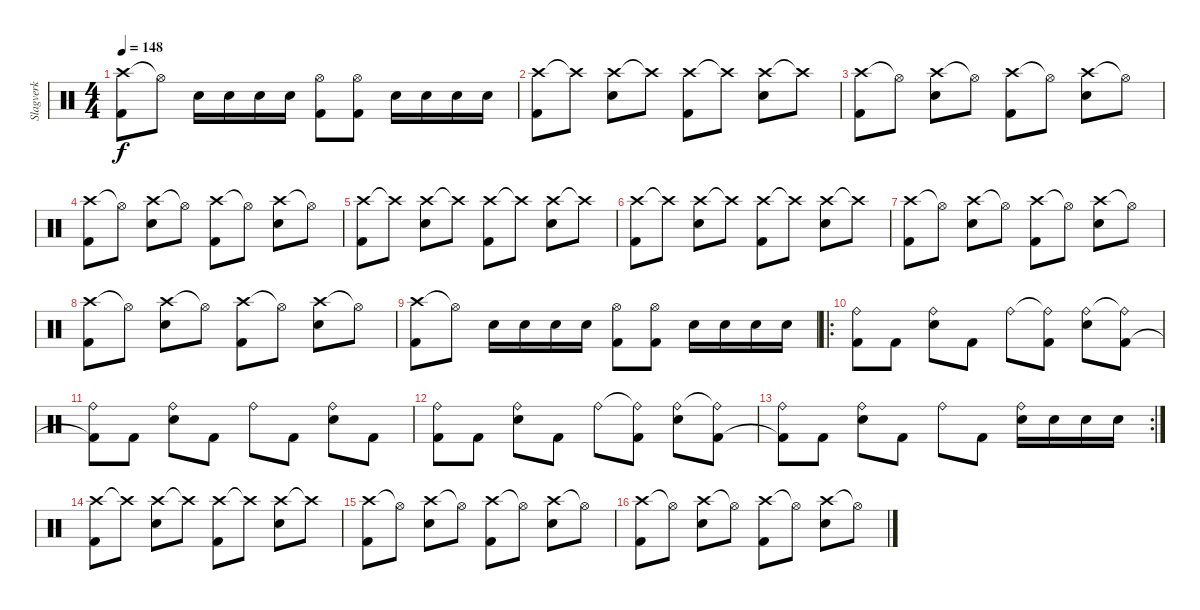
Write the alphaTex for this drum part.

\track ("Slagverk" "Slagverk") {instrument percussion}
\staff {score}
\articulation defaults
\ts (4 4)
\tempo 148
\clef neutral
\ks c
("Crash high (hit)" "Kick (hit) 2").8{dy f} "Hi-Hat (open)"{t}.8 "Electric Snare (hit)".16 "Electric Snare (hit)".16 "Electric Snare (hit)".16 "Electric Snare (hit)".16 ("Hi-Hat (open)" "Kick (hit) 2").8 ("Hi-Hat (open)" "Kick (hit) 2").8 "Electric Snare (hit)".16 "Electric Snare (hit)".16 "Electric Snare (hit)".16 "Electric Snare (hit)".16 |
("Crash high (hit)" "Kick (hit) 2").8 "Crash high (hit)"{t}.8 ("Crash high (hit)" "Electric Snare (hit)").8 "Crash high (hit)"{t}.8 ("Crash high (hit)" "Kick (hit) 2").8 "Crash high (hit)"{t}.8 ("Crash high (hit)" "Electric Snare (hit)").8 "Crash high (hit)"{t}.8 |
("Crash high (hit)" "Kick (hit) 2").8 "Hi-Hat (open)"{t}.8 ("Crash high (hit)" "Electric Snare (hit)").8 "Hi-Hat (open)"{t}.8 ("Crash high (hit)" "Kick (hit) 2").8 "Hi-Hat (open)"{t}.8 ("Crash high (hit)" "Electric Snare (hit)").8 "Hi-Hat (open)"{t}.8 |
("Crash high (hit)" "Kick (hit) 2").8 "Hi-Hat (open)"{t}.8 ("Crash high (hit)" "Electric Snare (hit)").8 "Hi-Hat (open)"{t}.8 ("Crash high (hit)" "Kick (hit) 2").8 "Hi-Hat (open)"{t}.8 ("Crash high (hit)" "Electric Snare (hit)").8 "Hi-Hat (open)"{t}.8 |
("Crash high (hit)" "Kick (hit) 2").8 "Crash high (hit)"{t}.8 ("Crash high (hit)" "Electric Snare (hit)").8 "Crash high (hit)"{t}.8 ("Crash high (hit)" "Kick (hit) 2").8 "Crash high (hit)"{t}.8 ("Crash high (hit)" "Electric Snare (hit)").8 "Crash high (hit)"{t}.8 |
("Crash high (hit)" "Kick (hit) 2").8 "Crash high (hit)"{t}.8 ("Crash high (hit)" "Electric Snare (hit)").8 "Crash high (hit)"{t}.8 ("Crash high (hit)" "Kick (hit) 2").8 "Crash high (hit)"{t}.8 ("Crash high (hit)" "Electric Snare (hit)").8 "Crash high (hit)"{t}.8 |
("Crash high (hit)" "Kick (hit) 2").8 "Hi-Hat (open)"{t}.8 ("Crash high (hit)" "Electric Snare (hit)").8 "Hi-Hat (open)"{t}.8 ("Crash high (hit)" "Kick (hit) 2").8 "Hi-Hat (open)"{t}.8 ("Crash high (hit)" "Electric Snare (hit)").8 "Hi-Hat (open)"{t}.8 |
("Crash high (hit)" "Kick (hit) 2").8 "Hi-Hat (open)"{t}.8 ("Crash high (hit)" "Electric Snare (hit)").8 "Hi-Hat (open)"{t}.8 ("Crash high (hit)" "Kick (hit) 2").8 "Hi-Hat (open)"{t}.8 ("Crash high (hit)" "Electric Snare (hit)").8 "Hi-Hat (open)"{t}.8 |
("Crash high (hit)" "Kick (hit) 2").8 "Hi-Hat (open)"{t}.8 "Electric Snare (hit)".16 "Electric Snare (hit)".16 "Electric Snare (hit)".16 "Electric Snare (hit)".16 ("Hi-Hat (open)" "Kick (hit) 2").8 ("Hi-Hat (open)" "Kick (hit) 2").8 "Electric Snare (hit)".16 "Electric Snare (hit)".16 "Electric Snare (hit)".16 "Electric Snare (hit)".16 |
\ro
("Ride (bell)" "Kick (hit) 2").8 "Kick (hit) 2".8 ("Ride (bell)" "Electric Snare (hit)").8 "Kick (hit) 2".8 "Ride (bell)".8 ("Ride (bell)"{t} "Kick (hit) 2").8 ("Ride (bell)" "Electric Snare (hit)").8 ("Ride (bell)"{t} "Kick (hit) 2").8 |
("Ride (bell)" "Kick (hit) 2"{t}).8 "Kick (hit) 2".8 ("Ride (bell)" "Electric Snare (hit)").8 "Kick (hit) 2".8 "Ride (bell)".8 "Kick (hit) 2".8 ("Ride (bell)" "Electric Snare (hit)").8 "Kick (hit) 2".8 |
("Ride (bell)" "Kick (hit) 2").8 "Kick (hit) 2".8 ("Ride (bell)" "Electric Snare (hit)").8 "Kick (hit) 2".8 "Ride (bell)".8 ("Ride (bell)"{t} "Kick (hit) 2").8 ("Ride (bell)" "Electric Snare (hit)").8 ("Ride (bell)"{t} "Kick (hit) 2").8 |
\rc 2
("Ride (bell)" "Kick (hit) 2"{t}).8 "Kick (hit) 2".8 ("Ride (bell)" "Electric Snare (hit)").8 "Kick (hit) 2".8 "Ride (bell)".8 "Kick (hit) 2".8 ("Ride (bell)" "Electric Snare (hit)").16 "Electric Snare (hit)".16 "Electric Snare (hit)".16 "Electric Snare (hit)".16 |
("Crash high (hit)" "Kick (hit) 2").8 "Crash high (hit)"{t}.8 ("Crash high (hit)" "Electric Snare (hit)").8 "Crash high (hit)"{t}.8 ("Crash high (hit)" "Kick (hit) 2").8 "Crash high (hit)"{t}.8 ("Crash high (hit)" "Electric Snare (hit)").8 "Crash high (hit)"{t}.8 |
("Crash high (hit)" "Kick (hit) 2").8 "Hi-Hat (open)"{t}.8 ("Crash high (hit)" "Electric Snare (hit)").8 "Hi-Hat (open)"{t}.8 ("Crash high (hit)" "Kick (hit) 2").8 "Hi-Hat (open)"{t}.8 ("Crash high (hit)" "Electric Snare (hit)").8 "Hi-Hat (open)"{t}.8 |
("Crash high (hit)" "Kick (hit) 2").8 "Hi-Hat (open)"{t}.8 ("Crash high (hit)" "Electric Snare (hit)").8 "Hi-Hat (open)"{t}.8 ("Crash high (hit)" "Kick (hit) 2").8 "Hi-Hat (open)"{t}.8 ("Crash high (hit)" "Electric Snare (hit)").8 "Hi-Hat (open)"{t}.8
